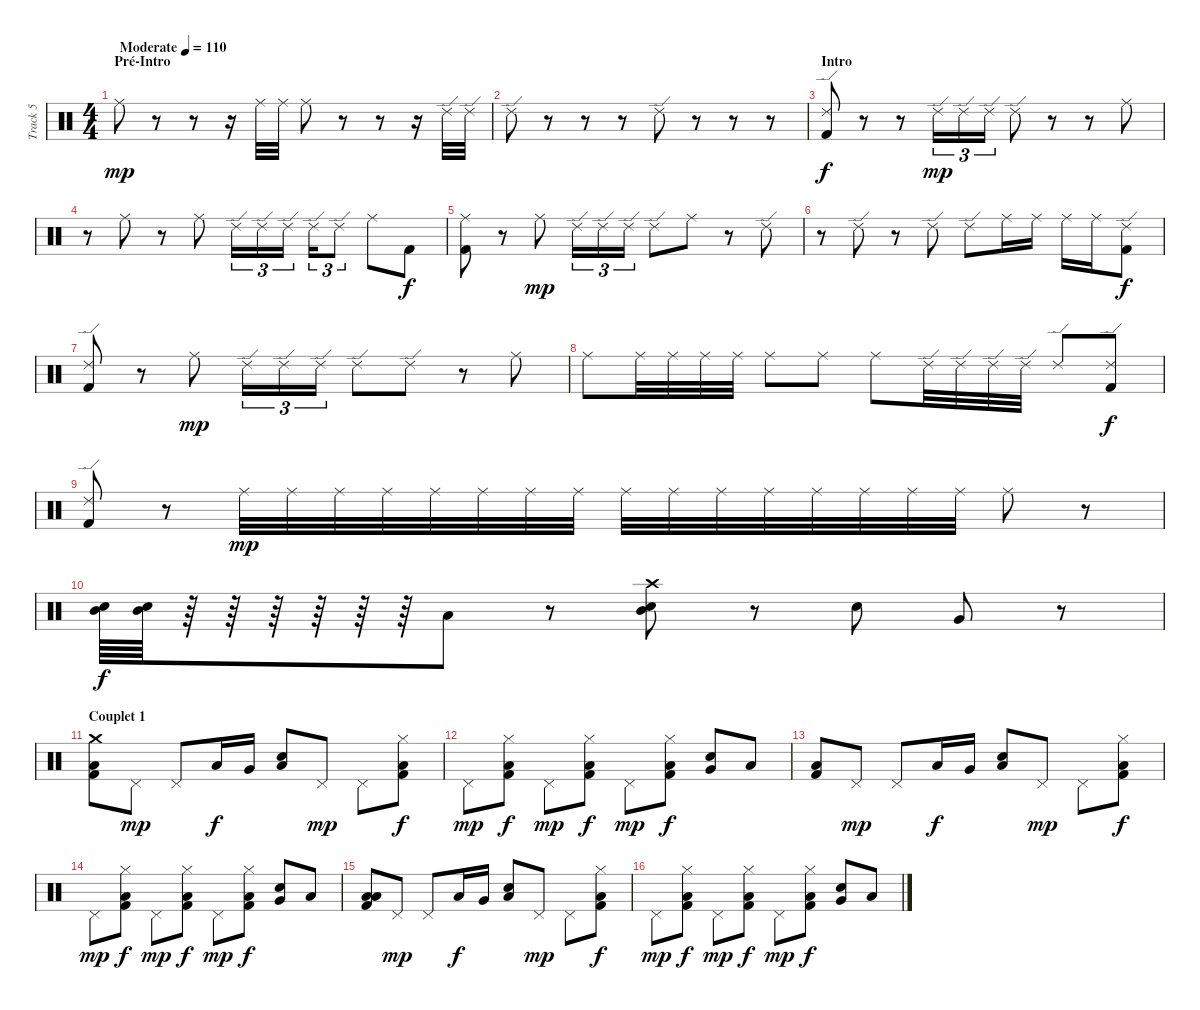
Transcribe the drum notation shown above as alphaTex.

\track ("Track 5" "Track 5") {instrument percussion}
\staff {score}
\articulation defaults
\ts (4 4)
\section ("" "Pré-Intro")
\tempo (110 "Moderate")
\clef neutral
\ks c "Ride (middle)".8{dy mp}
r.8 r.8 r.16 "Ride (middle)".32 "Ride (middle)".32 "Ride (middle)".8 r.8 r.8 r.16 "Ride (edge) 2".32 "Ride (edge) 2".32 |
"Ride (edge) 2".8 r.8 r.8 r.8 "Ride (edge) 2".8 r.8 r.8 r.8 |
\section ("" "Intro")
("Ride (edge) 2" "Kick (hit) 2").8{dy f} r.8 r.8 "Ride (edge) 2".16{tu (3 2) dy mp} "Ride (edge) 2".16{tu (3 2)} "Ride (edge) 2".16{tu (3 2)} "Ride (edge) 2".8 r.8 r.8 "Ride (middle)".8 |
r.8 "Ride (middle)".8 r.8 "Ride (middle)".8 "Ride (edge) 2".16{tu (3 2)} "Ride (edge) 2".16{tu (3 2)} "Ride (edge) 2".16{tu (3 2)} "Ride (edge) 2".16{tu (3 2)} "Ride (edge) 2".8{tu (3 2)} "Ride (middle)".8 "Kick (hit) 2".8{dy f} |
("Ride (middle)" "Kick (hit) 2").8 r.8 "Ride (middle)".8{dy mp} "Ride (edge) 2".16{tu (3 2)} "Ride (edge) 2".16{tu (3 2)} "Ride (edge) 2".16{tu (3 2)} "Ride (edge) 2".8 "Ride (middle)".8 r.8 "Ride (edge) 2".8 |
r.8 "Ride (edge) 2".8 r.8 "Ride (edge) 2".8 "Ride (edge) 2".8 "Ride (middle)".16 "Ride (middle)".16 "Ride (middle)".16 "Ride (middle)".16 ("Ride (edge) 2" "Kick (hit) 2").8{dy f} |
("Ride (edge) 2" "Kick (hit) 2").8 r.8 "Ride (middle)".8{dy mp} "Ride (edge) 2".16{tu (3 2)} "Ride (edge) 2".16{tu (3 2)} "Ride (edge) 2".16{tu (3 2)} "Ride (edge) 2".8 "Ride (edge) 2".8 r.8 "Ride (middle)".8 |
"Ride (middle)".8 "Ride (middle)".32 "Ride (middle)".32 "Ride (middle)".32 "Ride (middle)".32 "Ride (middle)".8 "Ride (middle)".8 "Ride (middle)".8 "Ride (edge) 2".32 "Ride (edge) 2".32 "Ride (edge) 2".32 "Ride (edge) 2".32 "Ride (edge) 2".8 ("Ride (edge) 2" "Kick (hit) 2").8{dy f} |
("Ride (edge) 2" "Kick (hit) 2").8 r.8 "Ride (middle)".32{dy mp} "Ride (middle)".32 "Ride (middle)".32 "Ride (middle)".32 "Ride (middle)".32 "Ride (middle)".32 "Ride (middle)".32 "Ride (middle)".32 "Ride (middle)".32 "Ride (middle)".32 "Ride (middle)".32 "Ride (middle)".32 "Ride (middle)".32 "Ride (middle)".32 "Ride (middle)".32 "Ride (middle)".32 "Ride (middle)".8 r.8 |
("Electric Snare (hit)" "Mid Tom (hit)").64{dy f} ("Electric Snare (hit)" "Mid Tom (hit)").64 r.64 r.64 r.64 r.64 r.64 r.64 "Low Tom (hit)".8 r.8 ("Mid Tom (hit)" "Snare (hit) 2" "Crash high (hit)").8 r.8 "Snare (hit) 2".8 "Very Low Tom (hit)".8 r.8 |
\section ("" "Couplet 1")
("Low Floor Tom (hit)" "Kick (hit) 2" "Crash medium (hit)").8 "Pedal Hi-Hat (hit)".8{dy mp} "Pedal Hi-Hat (hit)".8 "Low Tom (hit)".16{dy f} "Very Low Tom (hit)".16 ("Low Tom (hit)" "Snare (hit) 2").8 "Pedal Hi-Hat (hit)".8{dy mp} "Pedal Hi-Hat (hit)".8 ("Hi-Hat (closed)" "Kick (hit) 2" "Low Tom (hit)").8{dy f} |
"Pedal Hi-Hat (hit)".8{dy mp} ("Hi-Hat (closed)" "Kick (hit) 2" "Low Tom (hit)").8{dy f} "Pedal Hi-Hat (hit)".8{dy mp} ("Hi-Hat (closed)" "Kick (hit) 2" "Low Tom (hit)").8{dy f} "Pedal Hi-Hat (hit)".8{dy mp} ("Hi-Hat (closed)" "Kick (hit) 2" "Low Tom (hit)").8{dy f} ("Very Low Tom (hit)" "Electric Snare (hit)").8 "Low Floor Tom (hit)".8 |
("Low Floor Tom (hit)" "Kick (hit) 2").8 "Pedal Hi-Hat (hit)".8{dy mp} "Pedal Hi-Hat (hit)".8 "Low Tom (hit)".16{dy f} "Very Low Tom (hit)".16 ("Low Tom (hit)" "Snare (hit) 2").8 "Pedal Hi-Hat (hit)".8{dy mp} "Pedal Hi-Hat (hit)".8 ("Hi-Hat (closed)" "Kick (hit) 2" "Low Tom (hit)").8{dy f} |
"Pedal Hi-Hat (hit)".8{dy mp} ("Hi-Hat (closed)" "Kick (hit) 2" "Low Tom (hit)").8{dy f} "Pedal Hi-Hat (hit)".8{dy mp} ("Hi-Hat (closed)" "Kick (hit) 2" "Low Tom (hit)").8{dy f} "Pedal Hi-Hat (hit)".8{dy mp} ("Hi-Hat (closed)" "Kick (hit) 2" "Low Tom (hit)").8{dy f} ("Very Low Tom (hit)" "Electric Snare (hit)").8 "Low Floor Tom (hit)".8 |
("Low Floor Tom (hit)" "Kick (hit) 2" "Low Tom (hit)").8 "Pedal Hi-Hat (hit)".8{dy mp} "Pedal Hi-Hat (hit)".8 "Low Tom (hit)".16{dy f} "Very Low Tom (hit)".16 ("Low Tom (hit)" "Snare (hit) 2").8 "Pedal Hi-Hat (hit)".8{dy mp} "Pedal Hi-Hat (hit)".8 ("Hi-Hat (closed)" "Kick (hit) 2" "Low Tom (hit)").8{dy f} |
"Pedal Hi-Hat (hit)".8{dy mp} ("Hi-Hat (closed)" "Kick (hit) 2" "Low Tom (hit)").8{dy f} "Pedal Hi-Hat (hit)".8{dy mp} ("Hi-Hat (closed)" "Kick (hit) 2" "Low Tom (hit)").8{dy f} "Pedal Hi-Hat (hit)".8{dy mp} ("Hi-Hat (closed)" "Kick (hit) 2" "Low Tom (hit)").8{dy f} ("Very Low Tom (hit)" "Electric Snare (hit)").8 "Low Floor Tom (hit)".8
